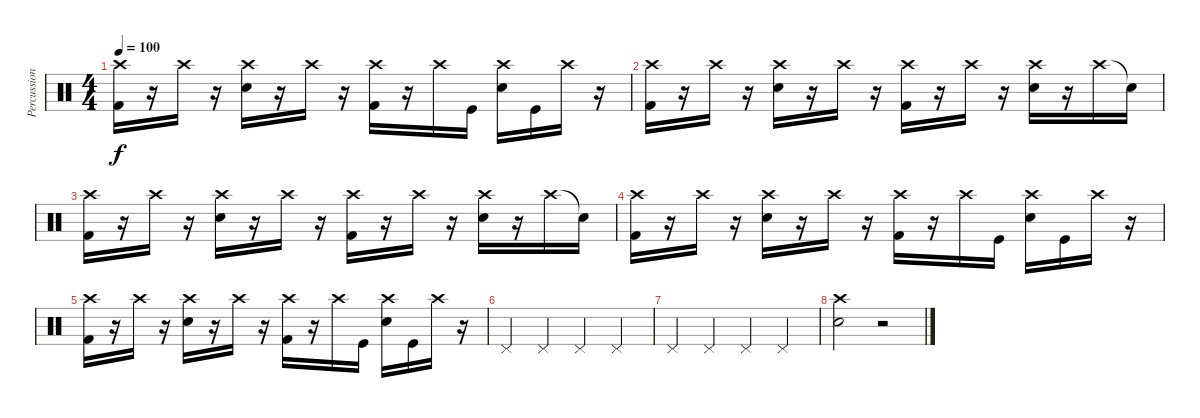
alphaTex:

\track ("Percussion" "Percussion") {instrument percussion}
\staff {score}
\articulation defaults
\ts (4 4)
\tempo 100
\clef neutral
\ks c
("Kick (hit) 2" "Crash high (hit)").16{dy f} r.16 "Crash high (hit)".16 r.16 ("Electric Snare (hit)" "Crash high (hit)").16 r.16 "Crash high (hit)".16 r.16 ("Kick (hit) 2" "Crash high (hit)").16 r.16 "Crash high (hit)".16 "Kick (hit)".16 ("Electric Snare (hit)" "Crash high (hit)").16 "Kick (hit)".16 "Crash high (hit)".16 r.16 |
("Kick (hit) 2" "Crash high (hit)").16 r.16 "Crash high (hit)".16 r.16 ("Electric Snare (hit)" "Crash high (hit)").16 r.16 "Crash high (hit)".16 r.16 ("Kick (hit) 2" "Crash high (hit)").16 r.16 "Crash high (hit)".16 r.16 ("Electric Snare (hit)" "Crash high (hit)").16 r.16 "Crash high (hit)".16 "Snare (hit)"{t}.16 |
("Kick (hit) 2" "Crash high (hit)").16 r.16 "Crash high (hit)".16 r.16 ("Electric Snare (hit)" "Crash high (hit)").16 r.16 "Crash high (hit)".16 r.16 ("Kick (hit) 2" "Crash high (hit)").16 r.16 "Crash high (hit)".16 r.16 ("Electric Snare (hit)" "Crash high (hit)").16 r.16 "Crash high (hit)".16 "Snare (hit)"{t}.16 |
("Kick (hit) 2" "Crash high (hit)").16 r.16 "Crash high (hit)".16 r.16 ("Electric Snare (hit)" "Crash high (hit)").16 r.16 "Crash high (hit)".16 r.16 ("Kick (hit) 2" "Crash high (hit)").16 r.16 "Crash high (hit)".16 "Kick (hit)".16 ("Electric Snare (hit)" "Crash high (hit)").16 "Kick (hit)".16 "Crash high (hit)".16 r.16 |
("Kick (hit) 2" "Crash high (hit)").16 r.16 "Crash high (hit)".16 r.16 ("Electric Snare (hit)" "Crash high (hit)").16 r.16 "Crash high (hit)".16 r.16 ("Kick (hit) 2" "Crash high (hit)").16 r.16 "Crash high (hit)".16 "Kick (hit)".16 ("Electric Snare (hit)" "Crash high (hit)").16 "Kick (hit)".16 "Crash high (hit)".16 r.16 |
"Pedal Hi-Hat (hit)".4 "Pedal Hi-Hat (hit)".4 "Pedal Hi-Hat (hit)".4 "Pedal Hi-Hat (hit)".4 |
"Pedal Hi-Hat (hit)".4 "Pedal Hi-Hat (hit)".4 "Pedal Hi-Hat (hit)".4 "Pedal Hi-Hat (hit)".4 |
("Crash high (hit)" "Electric Snare (hit)").2 r.2
